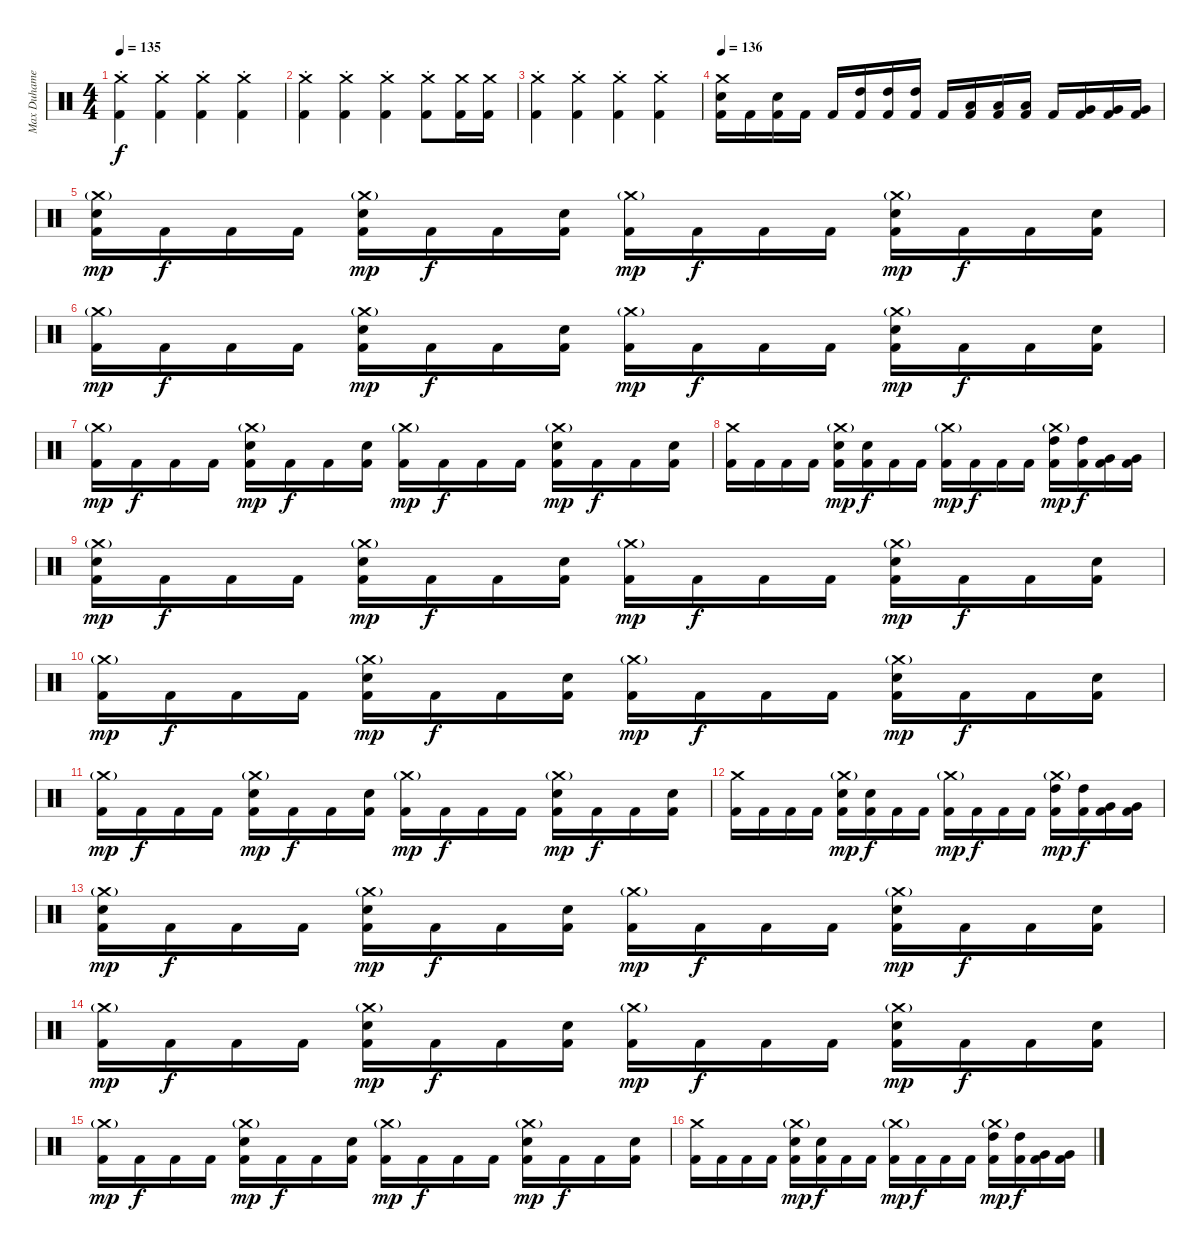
\track ("Max Duhamel (Drums)" "Max Duhame") {instrument percussion}
\staff {score}
\articulation defaults
\ts (4 4)
\tempo 135
\clef neutral
\ks c
("Crash medium (hit)"{st} "Kick (hit) 2").4{dy f} ("Crash medium (hit)"{st} "Kick (hit) 2").4 ("Crash medium (hit)"{st} "Kick (hit) 2").4 ("Crash medium (hit)"{st} "Kick (hit) 2").4 |
("Crash medium (hit)"{st} "Kick (hit) 2").4 ("Crash medium (hit)"{st} "Kick (hit) 2").4 ("Crash medium (hit)"{st} "Kick (hit) 2").4 ("Crash medium (hit)"{st} "Kick (hit) 2").8 ("Crash medium (hit)" "Kick (hit) 2").16 ("Crash medium (hit)" "Kick (hit) 2").16 |
("Crash medium (hit)"{st} "Kick (hit) 2").4 ("Crash medium (hit)"{st} "Kick (hit) 2").4 ("Crash medium (hit)"{st} "Kick (hit) 2").4 ("Crash medium (hit)"{st} "Kick (hit) 2").4 |
\tempo 136
("Crash medium (hit)" "Electric Snare (hit)" "Kick (hit) 2").16 "Kick (hit) 2".16 ("Electric Snare (hit)" "Kick (hit) 2").16 "Kick (hit) 2".16 "Kick (hit) 2".16 ("High Tom (hit)" "Kick (hit) 2").16 ("High Tom (hit)" "Kick (hit) 2").16 ("High Tom (hit)" "Kick (hit) 2").16 "Kick (hit) 2".16 ("Low Tom (hit)" "Kick (hit) 2").16 ("Low Tom (hit)" "Kick (hit) 2").16 ("Low Tom (hit)" "Kick (hit) 2").16 "Kick (hit) 2".16 ("Very Low Tom (hit)" "Kick (hit) 2").16 ("Very Low Tom (hit)" "Kick (hit) 2").16 ("Very Low Tom (hit)" "Kick (hit) 2").16 |
("Crash medium (hit)"{g} "Electric Snare (hit)" "Kick (hit) 2").16{dy mp} "Kick (hit) 2".16{dy f} "Kick (hit) 2".16 "Kick (hit) 2".16 ("Crash medium (hit)"{g} "Electric Snare (hit)" "Kick (hit) 2").16{dy mp} "Kick (hit) 2".16{dy f} "Kick (hit) 2".16 ("Electric Snare (hit)" "Kick (hit) 2").16 ("Crash medium (hit)"{g} "Kick (hit) 2").16{dy mp} "Kick (hit) 2".16{dy f} "Kick (hit) 2".16 "Kick (hit) 2".16 ("Crash medium (hit)"{g} "Electric Snare (hit)" "Kick (hit) 2").16{dy mp} "Kick (hit) 2".16{dy f} "Kick (hit) 2".16 ("Electric Snare (hit)" "Kick (hit) 2").16 |
("Crash medium (hit)"{g} "Kick (hit) 2").16{dy mp} "Kick (hit) 2".16{dy f} "Kick (hit) 2".16 "Kick (hit) 2".16 ("Crash medium (hit)"{g} "Electric Snare (hit)" "Kick (hit) 2").16{dy mp} "Kick (hit) 2".16{dy f} "Kick (hit) 2".16 ("Electric Snare (hit)" "Kick (hit) 2").16 ("Crash medium (hit)"{g} "Kick (hit) 2").16{dy mp} "Kick (hit) 2".16{dy f} "Kick (hit) 2".16 "Kick (hit) 2".16 ("Crash medium (hit)"{g} "Electric Snare (hit)" "Kick (hit) 2").16{dy mp} "Kick (hit) 2".16{dy f} "Kick (hit) 2".16 ("Electric Snare (hit)" "Kick (hit) 2").16 |
("Crash medium (hit)"{g} "Kick (hit) 2").16{dy mp} "Kick (hit) 2".16{dy f} "Kick (hit) 2".16 "Kick (hit) 2".16 ("Crash medium (hit)"{g} "Electric Snare (hit)" "Kick (hit) 2").16{dy mp} "Kick (hit) 2".16{dy f} "Kick (hit) 2".16 ("Electric Snare (hit)" "Kick (hit) 2").16 ("Crash medium (hit)"{g} "Kick (hit) 2").16{dy mp} "Kick (hit) 2".16{dy f} "Kick (hit) 2".16 "Kick (hit) 2".16 ("Crash medium (hit)"{g} "Electric Snare (hit)" "Kick (hit) 2").16{dy mp} "Kick (hit) 2".16{dy f} "Kick (hit) 2".16 ("Electric Snare (hit)" "Kick (hit) 2").16 |
("Crash medium (hit)" "Kick (hit) 2").16 "Kick (hit) 2".16 "Kick (hit) 2".16 "Kick (hit) 2".16 ("Crash medium (hit)"{g} "Electric Snare (hit)" "Kick (hit) 2").16{dy mp} ("Electric Snare (hit)" "Kick (hit) 2").16{dy f} "Kick (hit) 2".16 "Kick (hit) 2".16 ("Crash medium (hit)"{g} "Kick (hit) 2").16{dy mp} "Kick (hit) 2".16{dy f} "Kick (hit) 2".16 "Kick (hit) 2".16 ("Crash medium (hit)"{g} "High Tom (hit)" "Kick (hit) 2").16{dy mp} ("High Tom (hit)" "Kick (hit) 2").16{dy f} ("Very Low Tom (hit)" "Kick (hit) 2").16 ("Very Low Tom (hit)" "Kick (hit) 2").16 |
("Crash medium (hit)"{g} "Electric Snare (hit)" "Kick (hit) 2").16{dy mp} "Kick (hit) 2".16{dy f} "Kick (hit) 2".16 "Kick (hit) 2".16 ("Crash medium (hit)"{g} "Electric Snare (hit)" "Kick (hit) 2").16{dy mp} "Kick (hit) 2".16{dy f} "Kick (hit) 2".16 ("Electric Snare (hit)" "Kick (hit) 2").16 ("Crash medium (hit)"{g} "Kick (hit) 2").16{dy mp} "Kick (hit) 2".16{dy f} "Kick (hit) 2".16 "Kick (hit) 2".16 ("Crash medium (hit)"{g} "Electric Snare (hit)" "Kick (hit) 2").16{dy mp} "Kick (hit) 2".16{dy f} "Kick (hit) 2".16 ("Electric Snare (hit)" "Kick (hit) 2").16 |
("Crash medium (hit)"{g} "Kick (hit) 2").16{dy mp} "Kick (hit) 2".16{dy f} "Kick (hit) 2".16 "Kick (hit) 2".16 ("Crash medium (hit)"{g} "Electric Snare (hit)" "Kick (hit) 2").16{dy mp} "Kick (hit) 2".16{dy f} "Kick (hit) 2".16 ("Electric Snare (hit)" "Kick (hit) 2").16 ("Crash medium (hit)"{g} "Kick (hit) 2").16{dy mp} "Kick (hit) 2".16{dy f} "Kick (hit) 2".16 "Kick (hit) 2".16 ("Crash medium (hit)"{g} "Electric Snare (hit)" "Kick (hit) 2").16{dy mp} "Kick (hit) 2".16{dy f} "Kick (hit) 2".16 ("Electric Snare (hit)" "Kick (hit) 2").16 |
("Crash medium (hit)"{g} "Kick (hit) 2").16{dy mp} "Kick (hit) 2".16{dy f} "Kick (hit) 2".16 "Kick (hit) 2".16 ("Crash medium (hit)"{g} "Electric Snare (hit)" "Kick (hit) 2").16{dy mp} "Kick (hit) 2".16{dy f} "Kick (hit) 2".16 ("Electric Snare (hit)" "Kick (hit) 2").16 ("Crash medium (hit)"{g} "Kick (hit) 2").16{dy mp} "Kick (hit) 2".16{dy f} "Kick (hit) 2".16 "Kick (hit) 2".16 ("Crash medium (hit)"{g} "Electric Snare (hit)" "Kick (hit) 2").16{dy mp} "Kick (hit) 2".16{dy f} "Kick (hit) 2".16 ("Electric Snare (hit)" "Kick (hit) 2").16 |
("Crash medium (hit)" "Kick (hit) 2").16 "Kick (hit) 2".16 "Kick (hit) 2".16 "Kick (hit) 2".16 ("Crash medium (hit)"{g} "Electric Snare (hit)" "Kick (hit) 2").16{dy mp} ("Electric Snare (hit)" "Kick (hit) 2").16{dy f} "Kick (hit) 2".16 "Kick (hit) 2".16 ("Crash medium (hit)"{g} "Kick (hit) 2").16{dy mp} "Kick (hit) 2".16{dy f} "Kick (hit) 2".16 "Kick (hit) 2".16 ("Crash medium (hit)"{g} "High Tom (hit)" "Kick (hit) 2").16{dy mp} ("High Tom (hit)" "Kick (hit) 2").16{dy f} ("Very Low Tom (hit)" "Kick (hit) 2").16 ("Very Low Tom (hit)" "Kick (hit) 2").16 |
("Crash medium (hit)"{g} "Electric Snare (hit)" "Kick (hit) 2").16{dy mp} "Kick (hit) 2".16{dy f} "Kick (hit) 2".16 "Kick (hit) 2".16 ("Crash medium (hit)"{g} "Electric Snare (hit)" "Kick (hit) 2").16{dy mp} "Kick (hit) 2".16{dy f} "Kick (hit) 2".16 ("Electric Snare (hit)" "Kick (hit) 2").16 ("Crash medium (hit)"{g} "Kick (hit) 2").16{dy mp} "Kick (hit) 2".16{dy f} "Kick (hit) 2".16 "Kick (hit) 2".16 ("Crash medium (hit)"{g} "Electric Snare (hit)" "Kick (hit) 2").16{dy mp} "Kick (hit) 2".16{dy f} "Kick (hit) 2".16 ("Electric Snare (hit)" "Kick (hit) 2").16 |
("Crash medium (hit)"{g} "Kick (hit) 2").16{dy mp} "Kick (hit) 2".16{dy f} "Kick (hit) 2".16 "Kick (hit) 2".16 ("Crash medium (hit)"{g} "Electric Snare (hit)" "Kick (hit) 2").16{dy mp} "Kick (hit) 2".16{dy f} "Kick (hit) 2".16 ("Electric Snare (hit)" "Kick (hit) 2").16 ("Crash medium (hit)"{g} "Kick (hit) 2").16{dy mp} "Kick (hit) 2".16{dy f} "Kick (hit) 2".16 "Kick (hit) 2".16 ("Crash medium (hit)"{g} "Electric Snare (hit)" "Kick (hit) 2").16{dy mp} "Kick (hit) 2".16{dy f} "Kick (hit) 2".16 ("Electric Snare (hit)" "Kick (hit) 2").16 |
("Crash medium (hit)"{g} "Kick (hit) 2").16{dy mp} "Kick (hit) 2".16{dy f} "Kick (hit) 2".16 "Kick (hit) 2".16 ("Crash medium (hit)"{g} "Electric Snare (hit)" "Kick (hit) 2").16{dy mp} "Kick (hit) 2".16{dy f} "Kick (hit) 2".16 ("Electric Snare (hit)" "Kick (hit) 2").16 ("Crash medium (hit)"{g} "Kick (hit) 2").16{dy mp} "Kick (hit) 2".16{dy f} "Kick (hit) 2".16 "Kick (hit) 2".16 ("Crash medium (hit)"{g} "Electric Snare (hit)" "Kick (hit) 2").16{dy mp} "Kick (hit) 2".16{dy f} "Kick (hit) 2".16 ("Electric Snare (hit)" "Kick (hit) 2").16 |
("Crash medium (hit)" "Kick (hit) 2").16 "Kick (hit) 2".16 "Kick (hit) 2".16 "Kick (hit) 2".16 ("Crash medium (hit)"{g} "Electric Snare (hit)" "Kick (hit) 2").16{dy mp} ("Electric Snare (hit)" "Kick (hit) 2").16{dy f} "Kick (hit) 2".16 "Kick (hit) 2".16 ("Crash medium (hit)"{g} "Kick (hit) 2").16{dy mp} "Kick (hit) 2".16{dy f} "Kick (hit) 2".16 "Kick (hit) 2".16 ("Crash medium (hit)"{g} "High Tom (hit)" "Kick (hit) 2").16{dy mp} ("High Tom (hit)" "Kick (hit) 2").16{dy f} ("Very Low Tom (hit)" "Kick (hit) 2").16 ("Very Low Tom (hit)" "Kick (hit) 2").16
